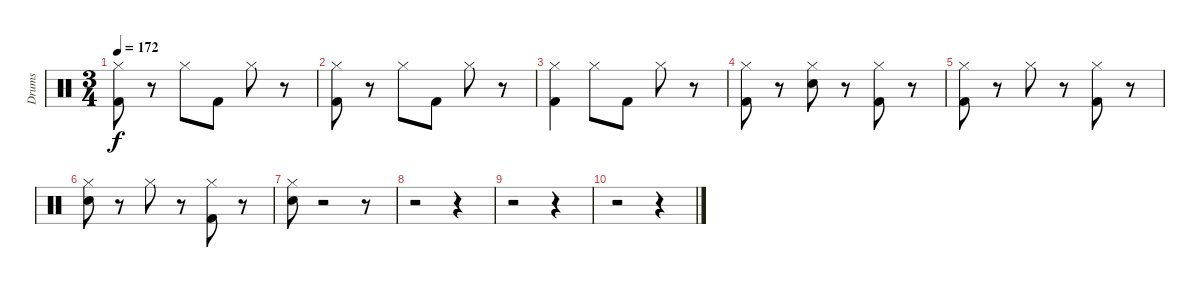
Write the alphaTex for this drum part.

\track ("Drums" "Drums") {instrument percussion}
\staff {score}
\articulation defaults
\ts (3 4)
\tempo 172
\clef neutral
\ks c
("Hi-Hat (closed)" "Kick (hit) 2").8{dy f} r.8 "Hi-Hat (closed)".8 "Kick (hit) 2".8 "Hi-Hat (closed)".8 r.8 |
("Hi-Hat (closed)" "Kick (hit) 2").8 r.8 "Hi-Hat (closed)".8 "Kick (hit) 2".8 "Hi-Hat (closed)".8 r.8 |
("Hi-Hat (closed)" "Kick (hit) 2").4 "Hi-Hat (closed)".8 "Kick (hit) 2".8 "Hi-Hat (closed)".8 r.8 |
("Hi-Hat (closed)" "Kick (hit) 2").8 r.8 ("Hi-Hat (closed)" "Snare (hit) 2").8 r.8 ("Kick (hit) 2" "Hi-Hat (closed)").8 r.8 |
("Hi-Hat (closed)" "Kick (hit) 2").8 r.8 "Hi-Hat (closed)".8 r.8 ("Hi-Hat (closed)" "Kick (hit) 2").8 r.8 |
("Hi-Hat (closed)" "Snare (hit) 2").8 r.8 "Hi-Hat (closed)".8 r.8 ("Kick (hit) 2" "Hi-Hat (closed)").8 r.8 |
("Hi-Hat (closed)" "Snare (hit) 2").8 r.2 r.8 |
r.2 r.4 |
r.2 r.4 |
r.2 r.4
